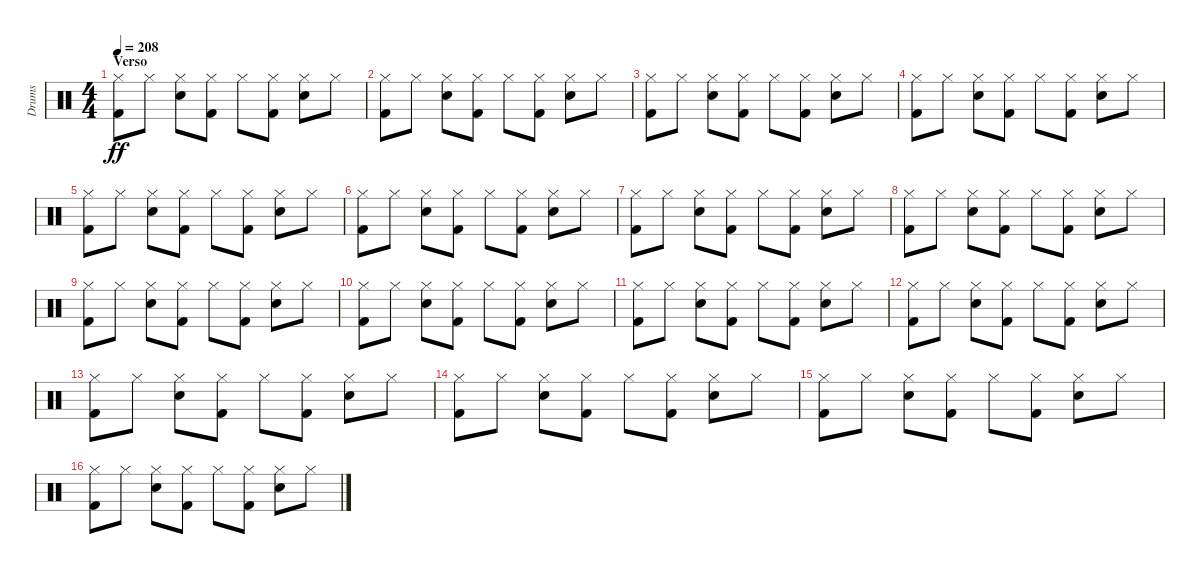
\track ("Drums" "Drums") {instrument percussion}
\staff {score}
\articulation defaults
\ts (4 4)
\section ("" "Verso")
\tempo 208
\clef neutral
\ks c
("Kick (hit) 2" "Hi-Hat (closed)").8{dy ff} "Hi-Hat (closed)".8 ("Snare (hit) 2" "Hi-Hat (closed)").8 ("Kick (hit) 2" "Hi-Hat (closed)").8 "Hi-Hat (closed)".8 ("Kick (hit) 2" "Hi-Hat (closed)").8 ("Snare (hit) 2" "Hi-Hat (closed)").8 "Hi-Hat (closed)".8 |
("Kick (hit) 2" "Hi-Hat (closed)").8 "Hi-Hat (closed)".8 ("Snare (hit) 2" "Hi-Hat (closed)").8 ("Kick (hit) 2" "Hi-Hat (closed)").8 "Hi-Hat (closed)".8 ("Kick (hit) 2" "Hi-Hat (closed)").8 ("Snare (hit) 2" "Hi-Hat (closed)").8 "Hi-Hat (closed)".8 |
("Kick (hit) 2" "Hi-Hat (closed)").8 "Hi-Hat (closed)".8 ("Snare (hit) 2" "Hi-Hat (closed)").8 ("Kick (hit) 2" "Hi-Hat (closed)").8 "Hi-Hat (closed)".8 ("Kick (hit) 2" "Hi-Hat (closed)").8 ("Snare (hit) 2" "Hi-Hat (closed)").8 "Hi-Hat (closed)".8 |
("Kick (hit) 2" "Hi-Hat (closed)").8 "Hi-Hat (closed)".8 ("Snare (hit) 2" "Hi-Hat (closed)").8 ("Kick (hit) 2" "Hi-Hat (closed)").8 "Hi-Hat (closed)".8 ("Kick (hit) 2" "Hi-Hat (closed)").8 ("Snare (hit) 2" "Hi-Hat (closed)").8 "Hi-Hat (closed)".8 |
("Kick (hit) 2" "Hi-Hat (closed)").8 "Hi-Hat (closed)".8 ("Snare (hit) 2" "Hi-Hat (closed)").8 ("Kick (hit) 2" "Hi-Hat (closed)").8 "Hi-Hat (closed)".8 ("Kick (hit) 2" "Hi-Hat (closed)").8 ("Snare (hit) 2" "Hi-Hat (closed)").8 "Hi-Hat (closed)".8 |
("Kick (hit) 2" "Hi-Hat (closed)").8 "Hi-Hat (closed)".8 ("Snare (hit) 2" "Hi-Hat (closed)").8 ("Kick (hit) 2" "Hi-Hat (closed)").8 "Hi-Hat (closed)".8 ("Kick (hit) 2" "Hi-Hat (closed)").8 ("Snare (hit) 2" "Hi-Hat (closed)").8 "Hi-Hat (closed)".8 |
("Kick (hit) 2" "Hi-Hat (closed)").8 "Hi-Hat (closed)".8 ("Snare (hit) 2" "Hi-Hat (closed)").8 ("Kick (hit) 2" "Hi-Hat (closed)").8 "Hi-Hat (closed)".8 ("Kick (hit) 2" "Hi-Hat (closed)").8 ("Snare (hit) 2" "Hi-Hat (closed)").8 "Hi-Hat (closed)".8 |
("Kick (hit) 2" "Hi-Hat (closed)").8 "Hi-Hat (closed)".8 ("Snare (hit) 2" "Hi-Hat (closed)").8 ("Kick (hit) 2" "Hi-Hat (closed)").8 "Hi-Hat (closed)".8 ("Kick (hit) 2" "Hi-Hat (closed)").8 ("Snare (hit) 2" "Hi-Hat (closed)").8 "Hi-Hat (closed)".8 |
("Kick (hit) 2" "Hi-Hat (closed)").8 "Hi-Hat (closed)".8 ("Snare (hit) 2" "Hi-Hat (closed)").8 ("Kick (hit) 2" "Hi-Hat (closed)").8 "Hi-Hat (closed)".8 ("Kick (hit) 2" "Hi-Hat (closed)").8 ("Snare (hit) 2" "Hi-Hat (closed)").8 "Hi-Hat (closed)".8 |
("Kick (hit) 2" "Hi-Hat (closed)").8 "Hi-Hat (closed)".8 ("Snare (hit) 2" "Hi-Hat (closed)").8 ("Kick (hit) 2" "Hi-Hat (closed)").8 "Hi-Hat (closed)".8 ("Kick (hit) 2" "Hi-Hat (closed)").8 ("Snare (hit) 2" "Hi-Hat (closed)").8 "Hi-Hat (closed)".8 |
("Kick (hit) 2" "Hi-Hat (closed)").8 "Hi-Hat (closed)".8 ("Snare (hit) 2" "Hi-Hat (closed)").8 ("Kick (hit) 2" "Hi-Hat (closed)").8 "Hi-Hat (closed)".8 ("Kick (hit) 2" "Hi-Hat (closed)").8 ("Snare (hit) 2" "Hi-Hat (closed)").8 "Hi-Hat (closed)".8 |
("Kick (hit) 2" "Hi-Hat (closed)").8 "Hi-Hat (closed)".8 ("Snare (hit) 2" "Hi-Hat (closed)").8 ("Kick (hit) 2" "Hi-Hat (closed)").8 "Hi-Hat (closed)".8 ("Kick (hit) 2" "Hi-Hat (closed)").8 ("Snare (hit) 2" "Hi-Hat (closed)").8 "Hi-Hat (closed)".8 |
("Kick (hit) 2" "Hi-Hat (closed)").8 "Hi-Hat (closed)".8 ("Snare (hit) 2" "Hi-Hat (closed)").8 ("Kick (hit) 2" "Hi-Hat (closed)").8 "Hi-Hat (closed)".8 ("Kick (hit) 2" "Hi-Hat (closed)").8 ("Snare (hit) 2" "Hi-Hat (closed)").8 "Hi-Hat (closed)".8 |
("Kick (hit) 2" "Hi-Hat (closed)").8 "Hi-Hat (closed)".8 ("Snare (hit) 2" "Hi-Hat (closed)").8 ("Kick (hit) 2" "Hi-Hat (closed)").8 "Hi-Hat (closed)".8 ("Kick (hit) 2" "Hi-Hat (closed)").8 ("Snare (hit) 2" "Hi-Hat (closed)").8 "Hi-Hat (closed)".8 |
("Kick (hit) 2" "Hi-Hat (closed)").8 "Hi-Hat (closed)".8 ("Snare (hit) 2" "Hi-Hat (closed)").8 ("Kick (hit) 2" "Hi-Hat (closed)").8 "Hi-Hat (closed)".8 ("Kick (hit) 2" "Hi-Hat (closed)").8 ("Snare (hit) 2" "Hi-Hat (closed)").8 "Hi-Hat (closed)".8 |
("Kick (hit) 2" "Hi-Hat (closed)").8 "Hi-Hat (closed)".8 ("Snare (hit) 2" "Hi-Hat (closed)").8 ("Kick (hit) 2" "Hi-Hat (closed)").8 "Hi-Hat (closed)".8 ("Kick (hit) 2" "Hi-Hat (closed)").8 ("Snare (hit) 2" "Hi-Hat (closed)").8 "Hi-Hat (closed)".8
